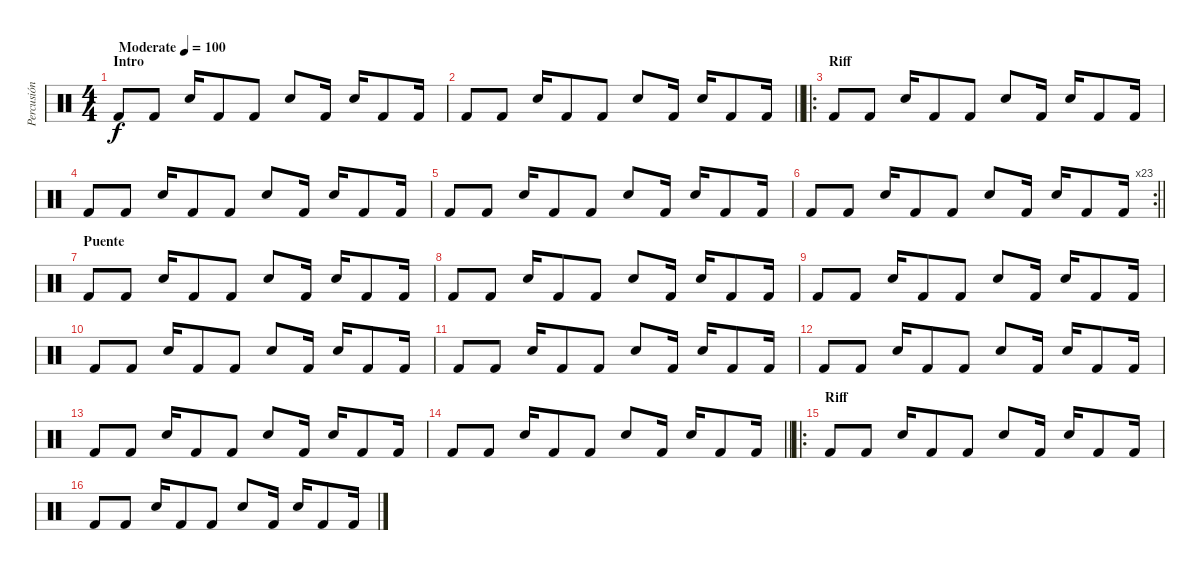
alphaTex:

\track ("Percusión" "Percusión") {instrument percussion}
\staff {score}
\articulation defaults
\ts (4 4)
\section ("" "Intro")
\tempo (100 "Moderate")
\clef neutral
\ks c "Kick (hit) 2".8{dy f} "Kick (hit) 2".8 "Electric Snare (hit)".16 "Kick (hit) 2".8 "Kick (hit) 2".8 "Electric Snare (hit)".8 "Kick (hit) 2".16 "Electric Snare (hit)".16 "Kick (hit) 2".8 "Kick (hit) 2".16
|
\barLineRight lightlight "Kick (hit) 2".8 "Kick (hit) 2".8 "Electric Snare (hit)".16 "Kick (hit) 2".8 "Kick (hit) 2".8 "Electric Snare (hit)".8 "Kick (hit) 2".16 "Electric Snare (hit)".16 "Kick (hit) 2".8 "Kick (hit) 2".16
|
\ro
\section ("" "Riff")
"Kick (hit) 2".8 "Kick (hit) 2".8 "Electric Snare (hit)".16 "Kick (hit) 2".8 "Kick (hit) 2".8 "Electric Snare (hit)".8 "Kick (hit) 2".16 "Electric Snare (hit)".16 "Kick (hit) 2".8 "Kick (hit) 2".16 |
"Kick (hit) 2".8 "Kick (hit) 2".8 "Electric Snare (hit)".16 "Kick (hit) 2".8 "Kick (hit) 2".8 "Electric Snare (hit)".8 "Kick (hit) 2".16 "Electric Snare (hit)".16 "Kick (hit) 2".8 "Kick (hit) 2".16 |
"Kick (hit) 2".8 "Kick (hit) 2".8 "Electric Snare (hit)".16 "Kick (hit) 2".8 "Kick (hit) 2".8 "Electric Snare (hit)".8 "Kick (hit) 2".16 "Electric Snare (hit)".16 "Kick (hit) 2".8 "Kick (hit) 2".16 |
\rc 23
\barLineRight lightlight "Kick (hit) 2".8 "Kick (hit) 2".8 "Electric Snare (hit)".16 "Kick (hit) 2".8 "Kick (hit) 2".8 "Electric Snare (hit)".8 "Kick (hit) 2".16 "Electric Snare (hit)".16 "Kick (hit) 2".8 "Kick (hit) 2".16
|
\section ("" "Puente")
"Kick (hit) 2".8 "Kick (hit) 2".8 "Electric Snare (hit)".16 "Kick (hit) 2".8 "Kick (hit) 2".8 "Electric Snare (hit)".8 "Kick (hit) 2".16 "Electric Snare (hit)".16 "Kick (hit) 2".8 "Kick (hit) 2".16 |
"Kick (hit) 2".8 "Kick (hit) 2".8 "Electric Snare (hit)".16 "Kick (hit) 2".8 "Kick (hit) 2".8 "Electric Snare (hit)".8 "Kick (hit) 2".16 "Electric Snare (hit)".16 "Kick (hit) 2".8 "Kick (hit) 2".16 |
"Kick (hit) 2".8 "Kick (hit) 2".8 "Electric Snare (hit)".16 "Kick (hit) 2".8 "Kick (hit) 2".8 "Electric Snare (hit)".8 "Kick (hit) 2".16 "Electric Snare (hit)".16 "Kick (hit) 2".8 "Kick (hit) 2".16 |
"Kick (hit) 2".8 "Kick (hit) 2".8 "Electric Snare (hit)".16 "Kick (hit) 2".8 "Kick (hit) 2".8 "Electric Snare (hit)".8 "Kick (hit) 2".16 "Electric Snare (hit)".16 "Kick (hit) 2".8 "Kick (hit) 2".16 |
"Kick (hit) 2".8 "Kick (hit) 2".8 "Electric Snare (hit)".16 "Kick (hit) 2".8 "Kick (hit) 2".8 "Electric Snare (hit)".8 "Kick (hit) 2".16 "Electric Snare (hit)".16 "Kick (hit) 2".8 "Kick (hit) 2".16 |
"Kick (hit) 2".8 "Kick (hit) 2".8 "Electric Snare (hit)".16 "Kick (hit) 2".8 "Kick (hit) 2".8 "Electric Snare (hit)".8 "Kick (hit) 2".16 "Electric Snare (hit)".16 "Kick (hit) 2".8 "Kick (hit) 2".16 |
"Kick (hit) 2".8 "Kick (hit) 2".8 "Electric Snare (hit)".16 "Kick (hit) 2".8 "Kick (hit) 2".8 "Electric Snare (hit)".8 "Kick (hit) 2".16 "Electric Snare (hit)".16 "Kick (hit) 2".8 "Kick (hit) 2".16 |
\barLineRight lightlight "Kick (hit) 2".8 "Kick (hit) 2".8 "Electric Snare (hit)".16 "Kick (hit) 2".8 "Kick (hit) 2".8 "Electric Snare (hit)".8 "Kick (hit) 2".16 "Electric Snare (hit)".16 "Kick (hit) 2".8 "Kick (hit) 2".16
|
\ro
\section ("" "Riff")
"Kick (hit) 2".8 "Kick (hit) 2".8 "Electric Snare (hit)".16 "Kick (hit) 2".8 "Kick (hit) 2".8 "Electric Snare (hit)".8 "Kick (hit) 2".16 "Electric Snare (hit)".16 "Kick (hit) 2".8 "Kick (hit) 2".16 |
"Kick (hit) 2".8 "Kick (hit) 2".8 "Electric Snare (hit)".16 "Kick (hit) 2".8 "Kick (hit) 2".8 "Electric Snare (hit)".8 "Kick (hit) 2".16 "Electric Snare (hit)".16 "Kick (hit) 2".8 "Kick (hit) 2".16
